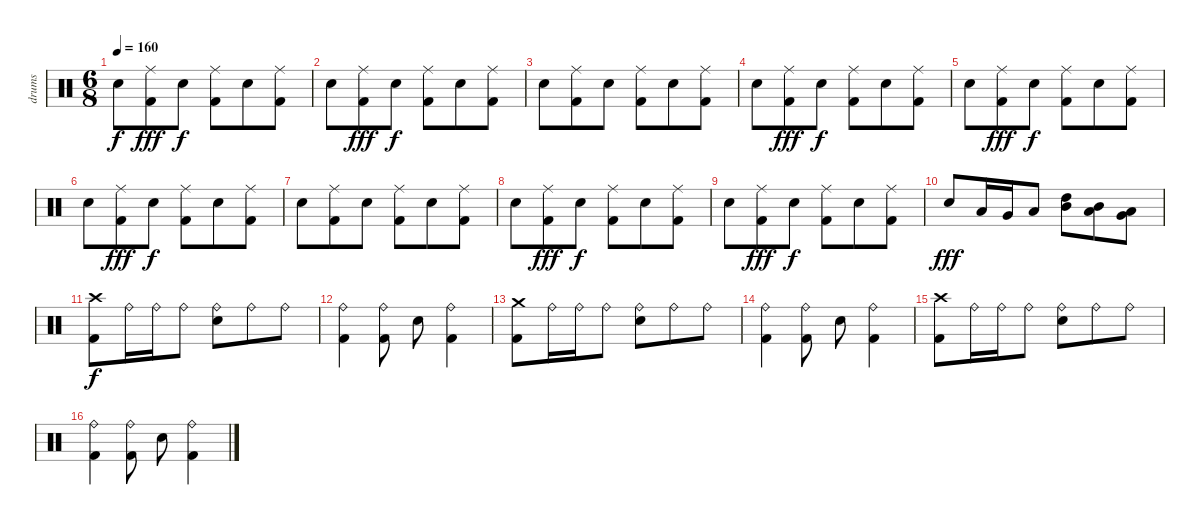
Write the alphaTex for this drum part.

\track ("drums" "drums") {instrument percussion}
\staff {score}
\articulation defaults
\ts (6 8)
\tempo 160
\clef neutral
\ks c "Electric Snare (hit)".8{dy f}
("Ride (middle)" "Kick (hit) 2").8{dy fff} "Electric Snare (hit)".8{dy f} ("Ride (middle)" "Kick (hit) 2").8 "Electric Snare (hit)".8 ("Ride (middle)" "Kick (hit) 2").8 |
"Electric Snare (hit)".8 ("Ride (middle)" "Kick (hit) 2").8{dy fff} "Electric Snare (hit)".8{dy f} ("Ride (middle)" "Kick (hit) 2").8 "Electric Snare (hit)".8 ("Ride (middle)" "Kick (hit) 2").8 |
"Electric Snare (hit)".8 ("Ride (middle)" "Kick (hit) 2").8 "Electric Snare (hit)".8 ("Ride (middle)" "Kick (hit) 2").8 "Electric Snare (hit)".8 ("Ride (middle)" "Kick (hit) 2").8 |
"Electric Snare (hit)".8 ("Ride (middle)" "Kick (hit) 2").8{dy fff} "Electric Snare (hit)".8{dy f} ("Ride (middle)" "Kick (hit) 2").8 "Electric Snare (hit)".8 ("Ride (middle)" "Kick (hit) 2").8 |
"Electric Snare (hit)".8 ("Ride (middle)" "Kick (hit) 2").8{dy fff} "Electric Snare (hit)".8{dy f} ("Ride (middle)" "Kick (hit) 2").8 "Electric Snare (hit)".8 ("Ride (middle)" "Kick (hit) 2").8 |
"Electric Snare (hit)".8 ("Ride (middle)" "Kick (hit) 2").8{dy fff} "Electric Snare (hit)".8{dy f} ("Ride (middle)" "Kick (hit) 2").8 "Electric Snare (hit)".8 ("Ride (middle)" "Kick (hit) 2").8 |
"Electric Snare (hit)".8 ("Ride (middle)" "Kick (hit) 2").8 "Electric Snare (hit)".8 ("Ride (middle)" "Kick (hit) 2").8 "Electric Snare (hit)".8 ("Ride (middle)" "Kick (hit) 2").8 |
"Electric Snare (hit)".8 ("Ride (middle)" "Kick (hit) 2").8{dy fff} "Electric Snare (hit)".8{dy f} ("Ride (middle)" "Kick (hit) 2").8 "Electric Snare (hit)".8 ("Ride (middle)" "Kick (hit) 2").8 |
"Electric Snare (hit)".8 ("Ride (middle)" "Kick (hit) 2").8{dy fff} "Electric Snare (hit)".8{dy f} ("Ride (middle)" "Kick (hit) 2").8 "Electric Snare (hit)".8 ("Ride (middle)" "Kick (hit) 2").8 |
"Electric Snare (hit)".8{dy fff} "Low Tom (hit)".16 "Very Low Tom (hit)".16 "Low Floor Tom (hit)".8 ("Mid Tom (hit)" "High Tom (hit)").8 ("Low Tom (hit)" "Mid Tom (hit)").8 ("Very Low Tom (hit)" "Low Tom (hit)").8 |
("Kick (hit) 2" "Crash high (hit)").8{dy f} "Ride (bell)".16 "Ride (bell)".16 "Ride (bell)".8 ("Electric Snare (hit)" "Ride (bell)").8 "Ride (bell)".8 "Ride (bell)".8 |
("Kick (hit) 2" "Ride (bell)").4 ("Kick (hit) 2" "Ride (bell)").8 "Electric Snare (hit)".8 ("Kick (hit) 2" "Ride (bell)").4 |
("Kick (hit) 2" "Crash medium (hit)").8 "Ride (bell)".16 "Ride (bell)".16 "Ride (bell)".8 ("Electric Snare (hit)" "Ride (bell)").8 "Ride (bell)".8 "Ride (bell)".8 |
("Kick (hit) 2" "Ride (bell)").4 ("Kick (hit) 2" "Ride (bell)").8 "Electric Snare (hit)".8 ("Kick (hit) 2" "Ride (bell)").4 |
("Kick (hit) 2" "Crash high (hit)").8 "Ride (bell)".16 "Ride (bell)".16 "Ride (bell)".8 ("Electric Snare (hit)" "Ride (bell)").8 "Ride (bell)".8 "Ride (bell)".8 |
("Kick (hit) 2" "Ride (bell)").4 ("Kick (hit) 2" "Ride (bell)").8 "Electric Snare (hit)".8 ("Kick (hit) 2" "Ride (bell)").4
